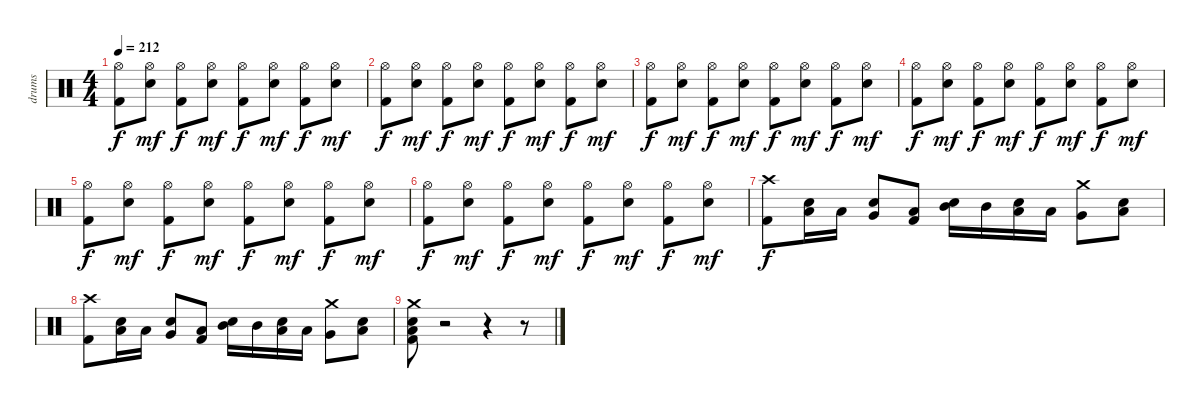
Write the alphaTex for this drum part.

\track ("drums" "drums") {instrument percussion}
\staff {score}
\articulation defaults
\ts (4 4)
\tempo 212
\clef neutral
\ks c
("Kick (hit) 2" "Hi-Hat (open)").8{dy f} ("Snare (hit) 2" "Hi-Hat (open)").8{dy mf} ("Kick (hit) 2" "Hi-Hat (open)").8{dy f} ("Snare (hit) 2" "Hi-Hat (open)").8{dy mf} ("Kick (hit) 2" "Hi-Hat (open)").8{dy f} ("Snare (hit) 2" "Hi-Hat (open)").8{dy mf} ("Kick (hit) 2" "Hi-Hat (open)").8{dy f} ("Snare (hit) 2" "Hi-Hat (open)").8{dy mf} |
("Kick (hit) 2" "Hi-Hat (open)").8{dy f} ("Snare (hit) 2" "Hi-Hat (open)").8{dy mf} ("Kick (hit) 2" "Hi-Hat (open)").8{dy f} ("Snare (hit) 2" "Hi-Hat (open)").8{dy mf} ("Kick (hit) 2" "Hi-Hat (open)").8{dy f} ("Snare (hit) 2" "Hi-Hat (open)").8{dy mf} ("Kick (hit) 2" "Hi-Hat (open)").8{dy f} ("Snare (hit) 2" "Hi-Hat (open)").8{dy mf} |
("Kick (hit) 2" "Hi-Hat (open)").8{dy f} ("Snare (hit) 2" "Hi-Hat (open)").8{dy mf} ("Kick (hit) 2" "Hi-Hat (open)").8{dy f} ("Snare (hit) 2" "Hi-Hat (open)").8{dy mf} ("Kick (hit) 2" "Hi-Hat (open)").8{dy f} ("Snare (hit) 2" "Hi-Hat (open)").8{dy mf} ("Kick (hit) 2" "Hi-Hat (open)").8{dy f} ("Snare (hit) 2" "Hi-Hat (open)").8{dy mf} |
("Kick (hit) 2" "Hi-Hat (open)").8{dy f} ("Snare (hit) 2" "Hi-Hat (open)").8{dy mf} ("Kick (hit) 2" "Hi-Hat (open)").8{dy f} ("Snare (hit) 2" "Hi-Hat (open)").8{dy mf} ("Kick (hit) 2" "Hi-Hat (open)").8{dy f} ("Snare (hit) 2" "Hi-Hat (open)").8{dy mf} ("Kick (hit) 2" "Hi-Hat (open)").8{dy f} ("Snare (hit) 2" "Hi-Hat (open)").8{dy mf} |
("Kick (hit) 2" "Hi-Hat (open)").8{dy f} ("Snare (hit) 2" "Hi-Hat (open)").8{dy mf} ("Kick (hit) 2" "Hi-Hat (open)").8{dy f} ("Snare (hit) 2" "Hi-Hat (open)").8{dy mf} ("Kick (hit) 2" "Hi-Hat (open)").8{dy f} ("Snare (hit) 2" "Hi-Hat (open)").8{dy mf} ("Kick (hit) 2" "Hi-Hat (open)").8{dy f} ("Snare (hit) 2" "Hi-Hat (open)").8{dy mf} |
("Kick (hit) 2" "Hi-Hat (open)").8{dy f} ("Snare (hit) 2" "Hi-Hat (open)").8{dy mf} ("Kick (hit) 2" "Hi-Hat (open)").8{dy f} ("Snare (hit) 2" "Hi-Hat (open)").8{dy mf} ("Kick (hit) 2" "Hi-Hat (open)").8{dy f} ("Snare (hit) 2" "Hi-Hat (open)").8{dy mf} ("Kick (hit) 2" "Hi-Hat (open)").8{dy f} ("Snare (hit) 2" "Hi-Hat (open)").8{dy mf} |
("Kick (hit) 2" "Crash high (hit)").8{dy f} ("Snare (hit) 2" "Low Tom (hit)").16 "Low Tom (hit)".16 ("Snare (hit) 2" "Very Low Tom (hit)").8 ("Kick (hit) 2" "Low Floor Tom (hit)").8 ("Snare (hit) 2" "Mid Tom (hit)").16 "Mid Tom (hit)".16 ("Snare (hit) 2" "Low Tom (hit)").16 "Low Tom (hit)".16 ("Very Low Tom (hit)" "Crash medium (hit)").8 ("Snare (hit) 2" "Low Tom (hit)").8 |
("Kick (hit) 2" "Crash high (hit)").8 ("Snare (hit) 2" "Low Tom (hit)").16 "Low Tom (hit)".16 ("Snare (hit) 2" "Very Low Tom (hit)").8 ("Kick (hit) 2" "Low Floor Tom (hit)").8 ("Snare (hit) 2" "Mid Tom (hit)").16 "Mid Tom (hit)".16 ("Snare (hit) 2" "Low Tom (hit)").16 "Low Tom (hit)".16 ("Very Low Tom (hit)" "Crash medium (hit)").8 ("Snare (hit) 2" "Low Tom (hit)").8 |
("Kick (hit) 2" "Snare (hit) 2" "Low Floor Tom (hit)" "Crash medium (hit)").8 r.2 r.4 r.8
